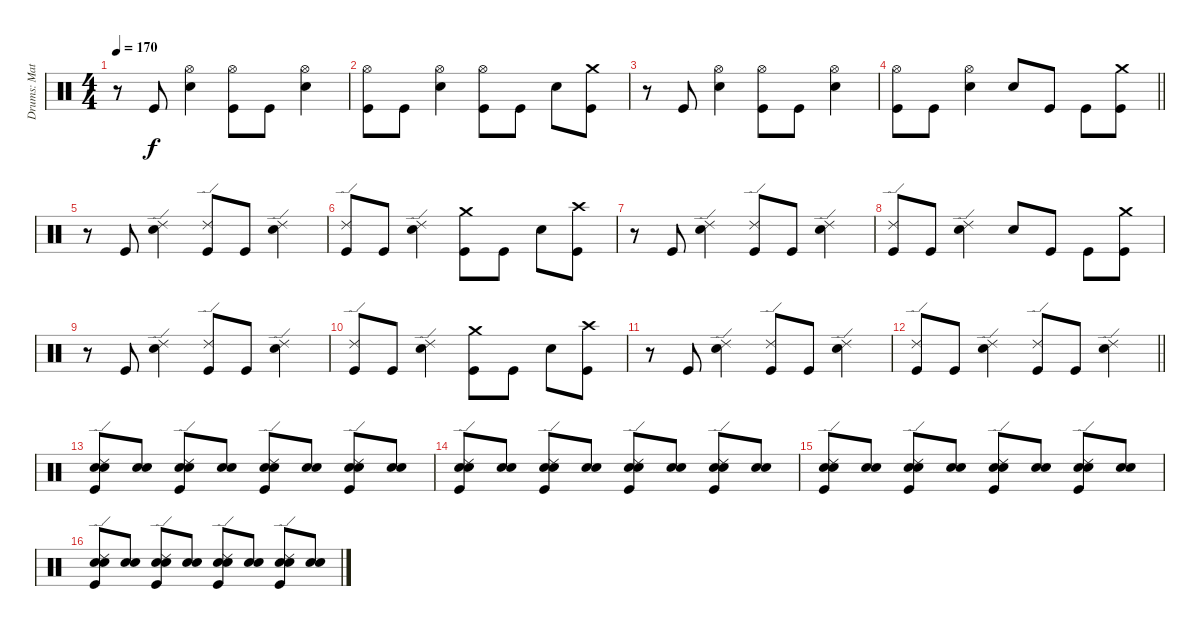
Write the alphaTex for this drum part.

\track ("Drums: Matt" "Drums: Mat") {solo instrument percussion}
\staff {score}
\articulation defaults
\ts (4 4)
\tempo 170
\clef neutral
\ks c
r.8{dy f} "Kick (hit)".8 ("Snare (hit) 2" "Hi-Hat (open)").4 ("Kick (hit)" "Hi-Hat (open)").8 "Kick (hit)".8 ("Hi-Hat (open)" "Snare (hit) 2").4 |
("Kick (hit)" "Hi-Hat (open)").8 "Kick (hit)".8 ("Snare (hit) 2" "Hi-Hat (open)").4 ("Kick (hit)" "Hi-Hat (open)").8 "Kick (hit)".8 "Snare (hit) 2".8 ("Kick (hit)" "Crash medium (hit)").8 |
r.8 "Kick (hit)".8 ("Hi-Hat (open)" "Snare (hit) 2").4 ("Kick (hit)" "Hi-Hat (open)").8 "Kick (hit)".8 ("Hi-Hat (open)" "Snare (hit) 2").4 |
\barLineRight lightlight
("Hi-Hat (open)" "Kick (hit)").8 "Kick (hit)".8 ("Hi-Hat (open)" "Snare (hit) 2").4 "Snare (hit) 2".8 "Kick (hit)".8 "Kick (hit)".8 ("Crash medium (hit)" "Kick (hit)").8 |
r.8 "Kick (hit)".8 ("Snare (hit) 2" "Ride (edge) 2").4 ("Kick (hit)" "Ride (edge) 2").8 "Kick (hit)".8 ("Ride (edge) 2" "Snare (hit) 2").4 |
("Ride (edge) 2" "Kick (hit)").8 "Kick (hit)".8 ("Snare (hit) 2" "Ride (edge) 2").4 ("Kick (hit)" "Crash medium (hit)").8 "Kick (hit)".8 "Snare (hit) 2".8 ("Kick (hit)" "Crash high (hit)").8 |
r.8 "Kick (hit)".8 ("Ride (edge) 2" "Snare (hit) 2").4 ("Kick (hit)" "Ride (edge) 2").8 "Kick (hit)".8 ("Snare (hit) 2" "Ride (edge) 2").4 |
("Ride (edge) 2" "Kick (hit)").8 "Kick (hit)".8 ("Snare (hit) 2" "Ride (edge) 2").4 "Snare (hit) 2".8 "Kick (hit)".8 "Kick (hit)".8 ("Crash medium (hit)" "Kick (hit)").8 |
r.8 "Kick (hit)".8 ("Ride (edge) 2" "Snare (hit) 2").4 ("Kick (hit)" "Ride (edge) 2").8 "Kick (hit)".8 ("Snare (hit) 2" "Ride (edge) 2").4 |
("Ride (edge) 2" "Kick (hit)").8 "Kick (hit)".8 ("Snare (hit) 2" "Ride (edge) 2").4 ("Crash medium (hit)" "Kick (hit)").8 "Kick (hit)".8 "Snare (hit) 2".8 ("Kick (hit)" "Crash high (hit)").8 |
r.8 "Kick (hit)".8 ("Ride (edge) 2" "Snare (hit) 2").4 ("Ride (edge) 2" "Kick (hit)").8 "Kick (hit)".8 ("Ride (edge) 2" "Snare (hit) 2").4 |
\barLineRight lightlight
("Ride (edge) 2" "Kick (hit)").8 "Kick (hit)".8 ("Snare (hit) 2" "Ride (edge) 2").4 ("Kick (hit)" "Ride (edge) 2").8 "Kick (hit)".8 ("Snare (hit) 2" "Ride (edge) 2").4 |
("Ride (edge) 2" "Kick (hit)" "Snare (hit) 2" "Snare (hit) 2").8 ("Snare (hit) 2" "Snare (hit) 2").8 ("Snare (hit) 2" "Ride (edge) 2" "Kick (hit)" "Snare (hit) 2").8 ("Snare (hit) 2" "Snare (hit) 2").8 ("Ride (edge) 2" "Snare (hit) 2" "Kick (hit)" "Snare (hit) 2").8 ("Snare (hit) 2" "Snare (hit) 2").8 ("Snare (hit) 2" "Kick (hit)" "Ride (edge) 2" "Snare (hit) 2").8 ("Snare (hit) 2" "Snare (hit) 2").8 |
("Kick (hit)" "Snare (hit) 2" "Ride (edge) 2" "Snare (hit) 2").8 ("Snare (hit) 2" "Snare (hit) 2").8 ("Ride (edge) 2" "Snare (hit) 2" "Kick (hit)" "Snare (hit) 2").8 ("Snare (hit) 2" "Snare (hit) 2").8 ("Kick (hit)" "Snare (hit) 2" "Ride (edge) 2" "Snare (hit) 2").8 ("Snare (hit) 2" "Snare (hit) 2").8 ("Kick (hit)" "Snare (hit) 2" "Ride (edge) 2" "Snare (hit) 2").8 ("Snare (hit) 2" "Snare (hit) 2").8 |
("Ride (edge) 2" "Snare (hit) 2" "Kick (hit)" "Snare (hit) 2").8 ("Snare (hit) 2" "Snare (hit) 2").8 ("Kick (hit)" "Snare (hit) 2" "Ride (edge) 2" "Snare (hit) 2").8 ("Snare (hit) 2" "Snare (hit) 2").8 ("Kick (hit)" "Snare (hit) 2" "Ride (edge) 2" "Snare (hit) 2").8 ("Snare (hit) 2" "Snare (hit) 2").8 ("Kick (hit)" "Ride (edge) 2" "Snare (hit) 2" "Snare (hit) 2").8 ("Snare (hit) 2" "Snare (hit) 2").8 |
("Kick (hit)" "Snare (hit) 2" "Ride (edge) 2" "Snare (hit) 2").8 ("Snare (hit) 2" "Snare (hit) 2").8 ("Ride (edge) 2" "Snare (hit) 2" "Kick (hit)" "Snare (hit) 2").8 ("Snare (hit) 2" "Snare (hit) 2").8 ("Kick (hit)" "Snare (hit) 2" "Ride (edge) 2" "Snare (hit) 2").8 ("Snare (hit) 2" "Snare (hit) 2").8 ("Kick (hit)" "Snare (hit) 2" "Ride (edge) 2" "Snare (hit) 2").8 ("Snare (hit) 2" "Snare (hit) 2").8
